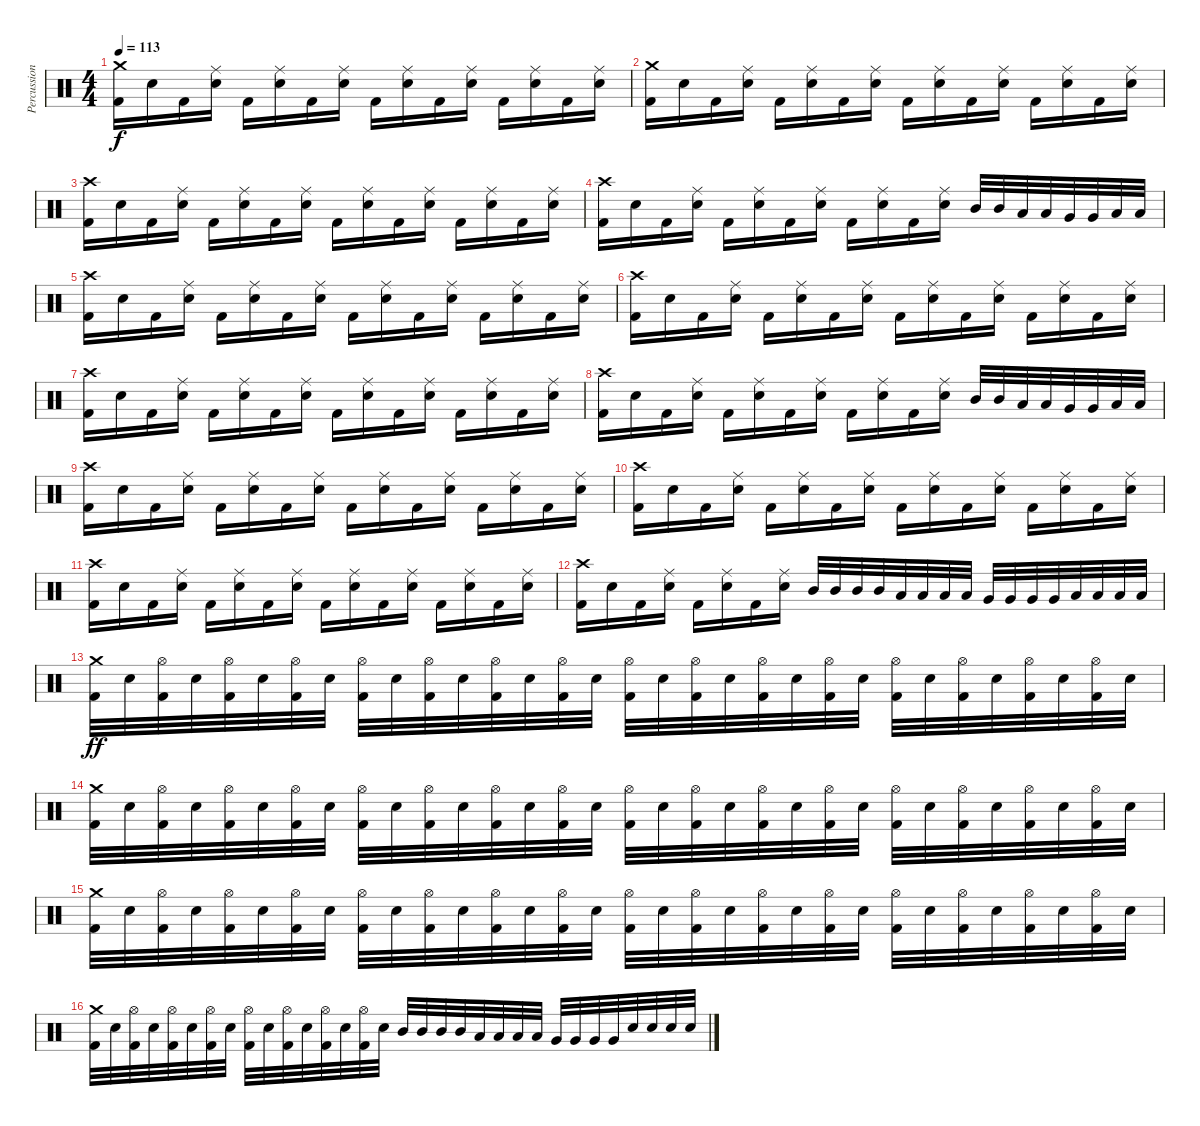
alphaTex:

\track ("Percussion" "Percussion") {instrument percussion}
\staff {score}
\articulation defaults
\ts (4 4)
\tempo 113
\clef neutral
\ks c
("Crash medium (hit)" "Kick (hit) 2").16{dy f} "Electric Snare (hit)".16 "Kick (hit) 2".16 ("Ride (middle)" "Electric Snare (hit)").16 "Kick (hit) 2".16 ("Ride (middle)" "Electric Snare (hit)").16 "Kick (hit) 2".16 ("Ride (middle)" "Electric Snare (hit)").16 "Kick (hit) 2".16 ("Ride (middle)" "Electric Snare (hit)").16 "Kick (hit) 2".16 ("Ride (middle)" "Electric Snare (hit)").16 "Kick (hit) 2".16 ("Ride (middle)" "Electric Snare (hit)").16 "Kick (hit) 2".16 ("Ride (middle)" "Electric Snare (hit)").16 |
("Crash medium (hit)" "Kick (hit) 2").16 "Electric Snare (hit)".16 "Kick (hit) 2".16 ("Ride (middle)" "Electric Snare (hit)").16 "Kick (hit) 2".16 ("Ride (middle)" "Electric Snare (hit)").16 "Kick (hit) 2".16 ("Ride (middle)" "Electric Snare (hit)").16 "Kick (hit) 2".16 ("Ride (middle)" "Electric Snare (hit)").16 "Kick (hit) 2".16 ("Ride (middle)" "Electric Snare (hit)").16 "Kick (hit) 2".16 ("Ride (middle)" "Electric Snare (hit)").16 "Kick (hit) 2".16 ("Ride (middle)" "Electric Snare (hit)").16 |
("Crash high (hit)" "Kick (hit) 2").16 "Electric Snare (hit)".16 "Kick (hit) 2".16 ("Ride (middle)" "Electric Snare (hit)").16 "Kick (hit) 2".16 ("Ride (middle)" "Electric Snare (hit)").16 "Kick (hit) 2".16 ("Ride (middle)" "Electric Snare (hit)").16 "Kick (hit) 2".16 ("Ride (middle)" "Electric Snare (hit)").16 "Kick (hit) 2".16 ("Ride (middle)" "Electric Snare (hit)").16 "Kick (hit) 2".16 ("Ride (middle)" "Electric Snare (hit)").16 "Kick (hit) 2".16 ("Ride (middle)" "Electric Snare (hit)").16 |
("Crash high (hit)" "Kick (hit) 2").16 "Electric Snare (hit)".16 "Kick (hit) 2".16 ("Ride (middle)" "Electric Snare (hit)").16 "Kick (hit) 2".16 ("Ride (middle)" "Electric Snare (hit)").16 "Kick (hit) 2".16 ("Ride (middle)" "Electric Snare (hit)").16 "Kick (hit) 2".16 ("Ride (middle)" "Electric Snare (hit)").16 "Kick (hit) 2".16 ("Ride (middle)" "Electric Snare (hit)").16 "Mid Tom (hit)".32 "Mid Tom (hit)".32 "Low Tom (hit)".32 "Low Tom (hit)".32 "Very Low Tom (hit)".32 "Very Low Tom (hit)".32 "Low Floor Tom (hit)".32 "Low Floor Tom (hit)".32 |
("Crash high (hit)" "Kick (hit) 2").16 "Electric Snare (hit)".16 "Kick (hit) 2".16 ("Ride (middle)" "Electric Snare (hit)").16 "Kick (hit) 2".16 ("Ride (middle)" "Electric Snare (hit)").16 "Kick (hit) 2".16 ("Ride (middle)" "Electric Snare (hit)").16 "Kick (hit) 2".16 ("Ride (middle)" "Electric Snare (hit)").16 "Kick (hit) 2".16 ("Ride (middle)" "Electric Snare (hit)").16 "Kick (hit) 2".16 ("Ride (middle)" "Electric Snare (hit)").16 "Kick (hit) 2".16 ("Ride (middle)" "Electric Snare (hit)").16 |
("Crash high (hit)" "Kick (hit) 2").16 "Electric Snare (hit)".16 "Kick (hit) 2".16 ("Ride (middle)" "Electric Snare (hit)").16 "Kick (hit) 2".16 ("Ride (middle)" "Electric Snare (hit)").16 "Kick (hit) 2".16 ("Ride (middle)" "Electric Snare (hit)").16 "Kick (hit) 2".16 ("Ride (middle)" "Electric Snare (hit)").16 "Kick (hit) 2".16 ("Ride (middle)" "Electric Snare (hit)").16 "Kick (hit) 2".16 ("Ride (middle)" "Electric Snare (hit)").16 "Kick (hit) 2".16 ("Ride (middle)" "Electric Snare (hit)").16 |
("Crash high (hit)" "Kick (hit) 2").16 "Electric Snare (hit)".16 "Kick (hit) 2".16 ("Ride (middle)" "Electric Snare (hit)").16 "Kick (hit) 2".16 ("Ride (middle)" "Electric Snare (hit)").16 "Kick (hit) 2".16 ("Ride (middle)" "Electric Snare (hit)").16 "Kick (hit) 2".16 ("Ride (middle)" "Electric Snare (hit)").16 "Kick (hit) 2".16 ("Ride (middle)" "Electric Snare (hit)").16 "Kick (hit) 2".16 ("Ride (middle)" "Electric Snare (hit)").16 "Kick (hit) 2".16 ("Ride (middle)" "Electric Snare (hit)").16 |
("Crash high (hit)" "Kick (hit) 2").16 "Electric Snare (hit)".16 "Kick (hit) 2".16 ("Ride (middle)" "Electric Snare (hit)").16 "Kick (hit) 2".16 ("Ride (middle)" "Electric Snare (hit)").16 "Kick (hit) 2".16 ("Ride (middle)" "Electric Snare (hit)").16 "Kick (hit) 2".16 ("Ride (middle)" "Electric Snare (hit)").16 "Kick (hit) 2".16 ("Ride (middle)" "Electric Snare (hit)").16 "Mid Tom (hit)".32 "Mid Tom (hit)".32 "Low Tom (hit)".32 "Low Tom (hit)".32 "Very Low Tom (hit)".32 "Very Low Tom (hit)".32 "Low Floor Tom (hit)".32 "Low Floor Tom (hit)".32 |
("Crash high (hit)" "Kick (hit) 2").16 "Electric Snare (hit)".16 "Kick (hit) 2".16 ("Ride (middle)" "Electric Snare (hit)").16 "Kick (hit) 2".16 ("Ride (middle)" "Electric Snare (hit)").16 "Kick (hit) 2".16 ("Ride (middle)" "Electric Snare (hit)").16 "Kick (hit) 2".16 ("Ride (middle)" "Electric Snare (hit)").16 "Kick (hit) 2".16 ("Ride (middle)" "Electric Snare (hit)").16 "Kick (hit) 2".16 ("Ride (middle)" "Electric Snare (hit)").16 "Kick (hit) 2".16 ("Ride (middle)" "Electric Snare (hit)").16 |
("Crash high (hit)" "Kick (hit) 2").16 "Electric Snare (hit)".16 "Kick (hit) 2".16 ("Ride (middle)" "Electric Snare (hit)").16 "Kick (hit) 2".16 ("Ride (middle)" "Electric Snare (hit)").16 "Kick (hit) 2".16 ("Ride (middle)" "Electric Snare (hit)").16 "Kick (hit) 2".16 ("Ride (middle)" "Electric Snare (hit)").16 "Kick (hit) 2".16 ("Ride (middle)" "Electric Snare (hit)").16 "Kick (hit) 2".16 ("Ride (middle)" "Electric Snare (hit)").16 "Kick (hit) 2".16 ("Ride (middle)" "Electric Snare (hit)").16 |
("Crash high (hit)" "Kick (hit) 2").16 "Electric Snare (hit)".16 "Kick (hit) 2".16 ("Ride (middle)" "Electric Snare (hit)").16 "Kick (hit) 2".16 ("Ride (middle)" "Electric Snare (hit)").16 "Kick (hit) 2".16 ("Ride (middle)" "Electric Snare (hit)").16 "Kick (hit) 2".16 ("Ride (middle)" "Electric Snare (hit)").16 "Kick (hit) 2".16 ("Ride (middle)" "Electric Snare (hit)").16 "Kick (hit) 2".16 ("Ride (middle)" "Electric Snare (hit)").16 "Kick (hit) 2".16 ("Ride (middle)" "Electric Snare (hit)").16 |
("Crash high (hit)" "Kick (hit) 2").16 "Electric Snare (hit)".16 "Kick (hit) 2".16 ("Ride (middle)" "Electric Snare (hit)").16 "Kick (hit) 2".16 ("Ride (middle)" "Electric Snare (hit)").16 "Kick (hit) 2".16 ("Ride (middle)" "Electric Snare (hit)").16 "Mid Tom (hit)".32 "Mid Tom (hit)".32 "Mid Tom (hit)".32 "Mid Tom (hit)".32 "Low Tom (hit)".32 "Low Tom (hit)".32 "Low Tom (hit)".32 "Low Tom (hit)".32 "Very Low Tom (hit)".32 "Very Low Tom (hit)".32 "Very Low Tom (hit)".32 "Very Low Tom (hit)".32 "Low Floor Tom (hit)".32 "Low Floor Tom (hit)".32 "Low Floor Tom (hit)".32 "Low Floor Tom (hit)".32 |
("Crash medium (hit)" "Kick (hit) 2").32{dy ff} "Electric Snare (hit)".32 ("Hi-Hat (open)" "Kick (hit) 2").32 "Electric Snare (hit)".32 ("Hi-Hat (open)" "Kick (hit) 2").32 "Electric Snare (hit)".32 ("Hi-Hat (open)" "Kick (hit) 2").32 "Electric Snare (hit)".32 ("Hi-Hat (open)" "Kick (hit) 2").32 "Electric Snare (hit)".32 ("Hi-Hat (open)" "Kick (hit) 2").32 "Electric Snare (hit)".32 ("Hi-Hat (open)" "Kick (hit) 2").32 "Electric Snare (hit)".32 ("Hi-Hat (open)" "Kick (hit) 2").32 "Electric Snare (hit)".32 ("Hi-Hat (open)" "Kick (hit) 2").32 "Electric Snare (hit)".32 ("Hi-Hat (open)" "Kick (hit) 2").32 "Electric Snare (hit)".32 ("Hi-Hat (open)" "Kick (hit) 2").32 "Electric Snare (hit)".32 ("Hi-Hat (open)" "Kick (hit) 2").32 "Electric Snare (hit)".32 ("Hi-Hat (open)" "Kick (hit) 2").32 "Electric Snare (hit)".32 ("Hi-Hat (open)" "Kick (hit) 2").32 "Electric Snare (hit)".32 ("Hi-Hat (open)" "Kick (hit) 2").32 "Electric Snare (hit)".32 ("Hi-Hat (open)" "Kick (hit) 2").32 "Electric Snare (hit)".32 |
("Crash medium (hit)" "Kick (hit) 2").32 "Electric Snare (hit)".32 ("Hi-Hat (open)" "Kick (hit) 2").32 "Electric Snare (hit)".32 ("Hi-Hat (open)" "Kick (hit) 2").32 "Electric Snare (hit)".32 ("Hi-Hat (open)" "Kick (hit) 2").32 "Electric Snare (hit)".32 ("Hi-Hat (open)" "Kick (hit) 2").32 "Electric Snare (hit)".32 ("Hi-Hat (open)" "Kick (hit) 2").32 "Electric Snare (hit)".32 ("Hi-Hat (open)" "Kick (hit) 2").32 "Electric Snare (hit)".32 ("Hi-Hat (open)" "Kick (hit) 2").32 "Electric Snare (hit)".32 ("Hi-Hat (open)" "Kick (hit) 2").32 "Electric Snare (hit)".32 ("Hi-Hat (open)" "Kick (hit) 2").32 "Electric Snare (hit)".32 ("Hi-Hat (open)" "Kick (hit) 2").32 "Electric Snare (hit)".32 ("Hi-Hat (open)" "Kick (hit) 2").32 "Electric Snare (hit)".32 ("Hi-Hat (open)" "Kick (hit) 2").32 "Electric Snare (hit)".32 ("Hi-Hat (open)" "Kick (hit) 2").32 "Electric Snare (hit)".32 ("Hi-Hat (open)" "Kick (hit) 2").32 "Electric Snare (hit)".32 ("Hi-Hat (open)" "Kick (hit) 2").32 "Electric Snare (hit)".32 |
("Crash medium (hit)" "Kick (hit) 2").32 "Electric Snare (hit)".32 ("Hi-Hat (open)" "Kick (hit) 2").32 "Electric Snare (hit)".32 ("Hi-Hat (open)" "Kick (hit) 2").32 "Electric Snare (hit)".32 ("Hi-Hat (open)" "Kick (hit) 2").32 "Electric Snare (hit)".32 ("Hi-Hat (open)" "Kick (hit) 2").32 "Electric Snare (hit)".32 ("Hi-Hat (open)" "Kick (hit) 2").32 "Electric Snare (hit)".32 ("Hi-Hat (open)" "Kick (hit) 2").32 "Electric Snare (hit)".32 ("Hi-Hat (open)" "Kick (hit) 2").32 "Electric Snare (hit)".32 ("Hi-Hat (open)" "Kick (hit) 2").32 "Electric Snare (hit)".32 ("Hi-Hat (open)" "Kick (hit) 2").32 "Electric Snare (hit)".32 ("Hi-Hat (open)" "Kick (hit) 2").32 "Electric Snare (hit)".32 ("Hi-Hat (open)" "Kick (hit) 2").32 "Electric Snare (hit)".32 ("Hi-Hat (open)" "Kick (hit) 2").32 "Electric Snare (hit)".32 ("Hi-Hat (open)" "Kick (hit) 2").32 "Electric Snare (hit)".32 ("Hi-Hat (open)" "Kick (hit) 2").32 "Electric Snare (hit)".32 ("Hi-Hat (open)" "Kick (hit) 2").32 "Electric Snare (hit)".32 |
("Crash medium (hit)" "Kick (hit) 2").32 "Electric Snare (hit)".32 ("Hi-Hat (open)" "Kick (hit) 2").32 "Electric Snare (hit)".32 ("Hi-Hat (open)" "Kick (hit) 2").32 "Electric Snare (hit)".32 ("Hi-Hat (open)" "Kick (hit) 2").32 "Electric Snare (hit)".32 ("Hi-Hat (open)" "Kick (hit) 2").32 "Electric Snare (hit)".32 ("Hi-Hat (open)" "Kick (hit) 2").32 "Electric Snare (hit)".32 ("Hi-Hat (open)" "Kick (hit) 2").32 "Electric Snare (hit)".32 ("Hi-Hat (open)" "Kick (hit) 2").32 "Electric Snare (hit)".32 "Mid Tom (hit)".32 "Mid Tom (hit)".32 "Mid Tom (hit)".32 "Mid Tom (hit)".32 "Low Tom (hit)".32 "Low Tom (hit)".32 "Low Tom (hit)".32 "Low Tom (hit)".32 "Very Low Tom (hit)".32 "Very Low Tom (hit)".32 "Very Low Tom (hit)".32 "Very Low Tom (hit)".32 "Electric Snare (hit)".32 "Electric Snare (hit)".32 "Electric Snare (hit)".32 "Electric Snare (hit)".32
